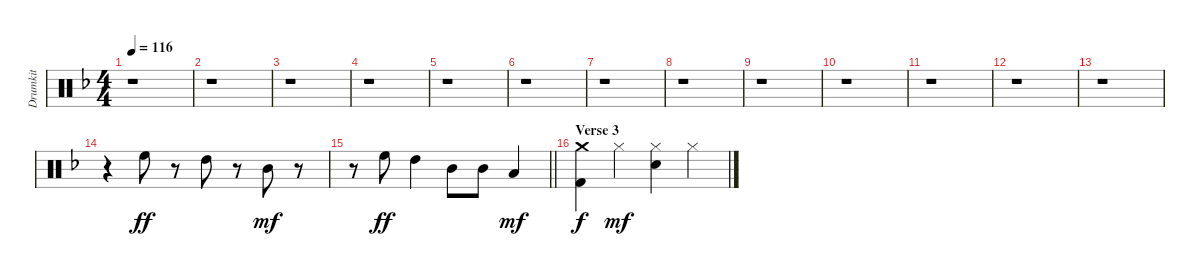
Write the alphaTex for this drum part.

\track ("Drumkit" "Drumkit") {instrument percussion}
\staff {score}
\articulation defaults
\ts (4 4)
\tempo 116
\clef neutral
\ks dminor
r.1{dy ff} |
r.1 |
r.1 |
r.1 |
r.1 |
r.1 |
r.1 |
r.1 |
r.1 |
r.1 |
r.1 |
r.1 |
r.1 |
r.4 "High Floor Tom (hit)".8 r.8 "High Tom (hit)".8 r.8 "Mid Tom (hit)".8{dy mf} r.8 |
\barLineRight lightlight
r.8 "High Floor Tom (hit)".8{dy ff} "High Tom (hit)".4 "Mid Tom (hit)".8 "Mid Tom (hit)".8 "Low Tom (hit)".4{dy mf} |
\section ("" "Verse 3")
("Crash medium (hit)" "Kick (hit) 2").4{dy f} "Hi-Hat (closed)".4{dy mf} ("Hi-Hat (closed)" "Snare (hit) 2").4 "Hi-Hat (closed)".4
